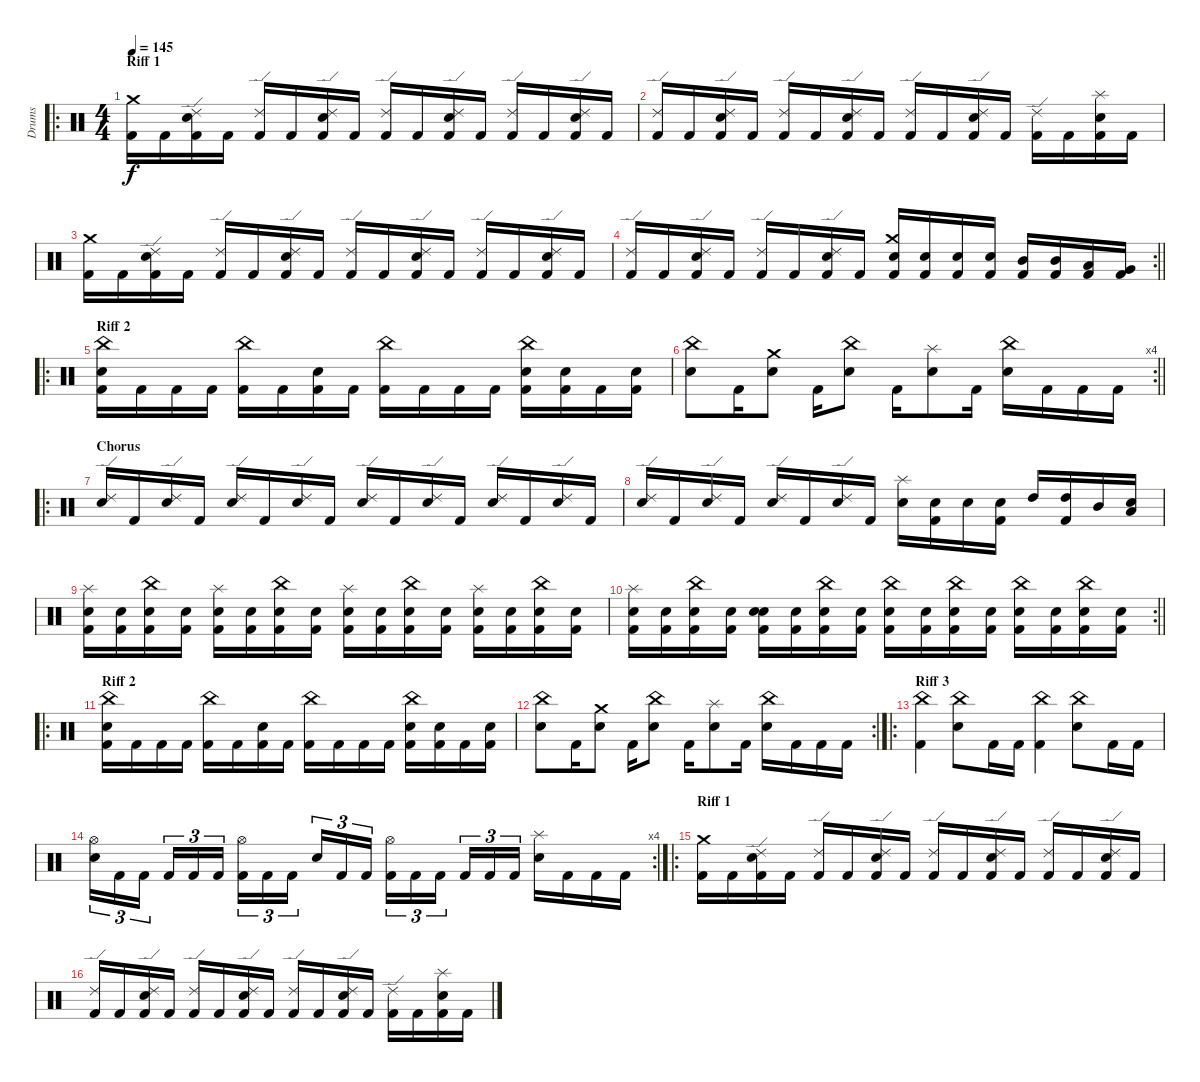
\track ("Drums" "Drums") {instrument percussion}
\staff {score}
\articulation defaults
\ro
\ts (4 4)
\section ("" "Riff 1")
\tempo 145
\clef neutral
\ks c
("Kick (hit) 2" "Crash medium (hit)").16{dy f} "Kick (hit) 2".16 ("Kick (hit) 2" "Snare (hit) 2" "Ride (edge) 2").16 "Kick (hit) 2".16 ("Kick (hit) 2" "Ride (edge) 2").16 "Kick (hit) 2".16 ("Kick (hit) 2" "Snare (hit) 2" "Ride (edge) 2").16 "Kick (hit) 2".16 ("Kick (hit) 2" "Ride (edge) 2").16 "Kick (hit) 2".16 ("Kick (hit) 2" "Snare (hit) 2" "Ride (edge) 2").16 "Kick (hit) 2".16 ("Kick (hit) 2" "Ride (edge) 2").16 "Kick (hit) 2".16 ("Kick (hit) 2" "Snare (hit) 2" "Ride (edge) 2").16 "Kick (hit) 2".16 |
("Kick (hit) 2" "Ride (edge) 2").16 "Kick (hit) 2".16 ("Kick (hit) 2" "Snare (hit) 2" "Ride (edge) 2").16 "Kick (hit) 2".16 ("Kick (hit) 2" "Ride (edge) 2").16 "Kick (hit) 2".16 ("Kick (hit) 2" "Snare (hit) 2" "Ride (edge) 2").16 "Kick (hit) 2".16 ("Kick (hit) 2" "Ride (edge) 2").16 "Kick (hit) 2".16 ("Kick (hit) 2" "Snare (hit) 2" "Ride (edge) 2").16 "Kick (hit) 2".16 ("Kick (hit) 2" "Ride (edge) 2").16 "Kick (hit) 2".16 ("Kick (hit) 2" "Snare (hit) 2" "Splash (hit)").16 "Kick (hit) 2".16 |
("Kick (hit) 2" "Crash medium (hit)").16 "Kick (hit) 2".16 ("Kick (hit) 2" "Snare (hit) 2" "Ride (edge) 2").16 "Kick (hit) 2".16 ("Kick (hit) 2" "Ride (edge) 2").16 "Kick (hit) 2".16 ("Kick (hit) 2" "Snare (hit) 2" "Ride (edge) 2").16 "Kick (hit) 2".16 ("Kick (hit) 2" "Ride (edge) 2").16 "Kick (hit) 2".16 ("Kick (hit) 2" "Snare (hit) 2" "Ride (edge) 2").16 "Kick (hit) 2".16 ("Kick (hit) 2" "Ride (edge) 2").16 "Kick (hit) 2".16 ("Kick (hit) 2" "Snare (hit) 2" "Ride (edge) 2").16 "Kick (hit) 2".16 |
\rc 2
\barLineRight lightlight
("Kick (hit) 2" "Ride (edge) 2").16 "Kick (hit) 2".16 ("Kick (hit) 2" "Snare (hit) 2" "Ride (edge) 2").16 "Kick (hit) 2".16 ("Kick (hit) 2" "Ride (edge) 2").16 "Kick (hit) 2".16 ("Kick (hit) 2" "Snare (hit) 2" "Ride (edge) 2").16 "Kick (hit) 2".16 ("Kick (hit) 2" "Snare (hit) 2" "Crash medium (hit)").16 ("Kick (hit) 2" "Snare (hit) 2").16 ("Kick (hit) 2" "Snare (hit) 2").16 ("Kick (hit) 2" "Snare (hit) 2").16 ("Kick (hit) 2" "Mid Tom (hit)").16 ("Kick (hit) 2" "Mid Tom (hit)").16 ("Kick (hit) 2" "Low Tom (hit)").16 ("Kick (hit) 2" "Very Low Tom (hit)").16 |
\ro
\section ("" "Riff 2")
("Kick (hit) 2" "Snare (hit) 2" "China (hit)").16 "Kick (hit) 2".16 "Kick (hit) 2".16 "Kick (hit) 2".16 ("Kick (hit) 2" "China (hit)").16 "Kick (hit) 2".16 ("Kick (hit) 2" "Snare (hit) 2").16 "Kick (hit) 2".16 ("Kick (hit) 2" "China (hit)").16 "Kick (hit) 2".16 "Kick (hit) 2".16 "Kick (hit) 2".16 ("Kick (hit) 2" "Snare (hit) 2" "China (hit)").16 ("Kick (hit) 2" "Snare (hit) 2").16 "Kick (hit) 2".16 ("Kick (hit) 2" "Snare (hit) 2").16 |
\rc 4
\barLineRight lightlight
("Snare (hit) 2" "China (hit)").8 "Kick (hit) 2".16 ("Snare (hit) 2" "Crash medium (hit)").8 "Kick (hit) 2".16 ("Snare (hit) 2" "China (hit)").8 "Kick (hit) 2".16 ("Splash (hit)" "Snare (hit) 2").8 "Kick (hit) 2".16 ("China (hit)" "Snare (hit) 2").16 "Kick (hit) 2".16 "Kick (hit) 2".16 "Kick (hit) 2".16 |
\ro
\section ("" "Chorus")
("Snare (hit) 2" "Ride (edge) 2").16 "Kick (hit) 2".16 ("Snare (hit) 2" "Ride (edge) 2").16 "Kick (hit) 2".16 ("Snare (hit) 2" "Ride (edge) 2").16 "Kick (hit) 2".16 ("Snare (hit) 2" "Ride (edge) 2").16 "Kick (hit) 2".16 ("Snare (hit) 2" "Ride (edge) 2").16 "Kick (hit) 2".16 ("Snare (hit) 2" "Ride (edge) 2").16 "Kick (hit) 2".16 ("Snare (hit) 2" "Ride (edge) 2").16 "Kick (hit) 2".16 ("Snare (hit) 2" "Ride (edge) 2").16 "Kick (hit) 2".16 |
("Snare (hit) 2" "Ride (edge) 2").16 "Kick (hit) 2".16 ("Snare (hit) 2" "Ride (edge) 2").16 "Kick (hit) 2".16 ("Snare (hit) 2" "Ride (edge) 2").16 "Kick (hit) 2".16 ("Snare (hit) 2" "Ride (edge) 2").16 "Kick (hit) 2".16 ("Snare (hit) 2" "Splash (hit)").16 ("Kick (hit) 2" "Snare (hit) 2").16 "Snare (hit) 2".16 ("Kick (hit) 2" "Snare (hit) 2").16 "High Tom (hit)".16 ("Kick (hit) 2" "High Tom (hit)").16 "Mid Tom (hit)".16 ("Snare (hit)" "Low Tom (hit)").16 |
("Kick (hit) 2" "Snare (hit) 2" "Splash (hit)").16 ("Kick (hit) 2" "Snare (hit) 2").16 ("Kick (hit) 2" "Snare (hit) 2" "China (hit)").16 ("Kick (hit) 2" "Snare (hit) 2").16 ("Kick (hit) 2" "Snare (hit) 2" "Splash (hit)").16 ("Kick (hit) 2" "Snare (hit) 2").16 ("Kick (hit) 2" "Snare (hit) 2" "China (hit)").16 ("Kick (hit) 2" "Snare (hit) 2").16 ("Kick (hit) 2" "Snare (hit) 2" "Splash (hit)").16 ("Kick (hit) 2" "Snare (hit) 2").16 ("Kick (hit) 2" "Snare (hit) 2" "China (hit)").16 ("Kick (hit) 2" "Snare (hit) 2").16 ("Kick (hit) 2" "Snare (hit) 2" "Splash (hit)").16 ("Kick (hit) 2" "Snare (hit) 2").16 ("Kick (hit) 2" "Snare (hit) 2" "China (hit)").16 ("Kick (hit) 2" "Snare (hit) 2").16 |
\rc 2
\barLineRight lightlight
("Kick (hit) 2" "Snare (hit) 2" "Splash (hit)").16 ("Kick (hit) 2" "Snare (hit) 2").16 ("Kick (hit) 2" "Snare (hit) 2" "China (hit)").16 ("Kick (hit) 2" "Snare (hit) 2").16 ("Kick (hit) 2" "Snare (hit) 2" "Snare (hit)").16 ("Kick (hit) 2" "Snare (hit) 2").16 ("Kick (hit) 2" "Snare (hit) 2" "China (hit)").16 ("Kick (hit) 2" "Snare (hit) 2").16 ("Kick (hit) 2" "Snare (hit) 2" "China (hit)").16 ("Kick (hit) 2" "Snare (hit) 2").16 ("Kick (hit) 2" "Snare (hit) 2" "China (hit)").16 ("Kick (hit) 2" "Snare (hit) 2").16 ("Kick (hit) 2" "Snare (hit) 2" "China (hit)").16 ("Kick (hit) 2" "Snare (hit) 2").16 ("Kick (hit) 2" "Snare (hit) 2" "China (hit)").16 ("Kick (hit) 2" "Snare (hit) 2").16 |
\ro
\section ("" "Riff 2")
("Kick (hit) 2" "Snare (hit) 2" "China (hit)").16 "Kick (hit) 2".16 "Kick (hit) 2".16 "Kick (hit) 2".16 ("Kick (hit) 2" "China (hit)").16 "Kick (hit) 2".16 ("Kick (hit) 2" "Snare (hit) 2").16 "Kick (hit) 2".16 ("Kick (hit) 2" "China (hit)").16 "Kick (hit) 2".16 "Kick (hit) 2".16 "Kick (hit) 2".16 ("Kick (hit) 2" "Snare (hit) 2" "China (hit)").16 ("Kick (hit) 2" "Snare (hit) 2").16 "Kick (hit) 2".16 ("Kick (hit) 2" "Snare (hit) 2").16 |
\rc 2
("Snare (hit) 2" "China (hit)").8 "Kick (hit) 2".16 ("Snare (hit) 2" "Crash medium (hit)").8 "Kick (hit) 2".16 ("Snare (hit) 2" "China (hit)").8 "Kick (hit) 2".16 ("Splash (hit)" "Snare (hit) 2").8 "Kick (hit) 2".16 ("China (hit)" "Snare (hit) 2").16 "Kick (hit) 2".16 "Kick (hit) 2".16 "Kick (hit) 2".16 |
\ro
\section ("" "Riff 3")
("Kick (hit) 2" "China (hit)").4 ("Snare (hit) 2" "China (hit)").8 "Kick (hit) 2".16 "Kick (hit) 2".16 ("Kick (hit) 2" "China (hit)").4 ("Snare (hit) 2" "China (hit)").8 "Kick (hit) 2".16 "Kick (hit) 2".16 |
\rc 4
("Snare (hit) 2" "Hi-Hat (open)").16{tu (3 2)} "Kick (hit) 2".16{tu (3 2)} "Kick (hit) 2".16{tu (3 2)} "Kick (hit) 2".16{tu (3 2)} "Kick (hit) 2".16{tu (3 2)} "Kick (hit) 2".16{tu (3 2)} ("Kick (hit) 2" "Hi-Hat (open)").16{tu (3 2)} "Kick (hit) 2".16{tu (3 2)} "Kick (hit) 2".16{tu (3 2)} "Snare (hit) 2".16{tu (3 2)} "Kick (hit) 2".16{tu (3 2)} "Kick (hit) 2".16{tu (3 2)} ("Kick (hit) 2" "Hi-Hat (open)").16{tu (3 2)} "Kick (hit) 2".16{tu (3 2)} "Kick (hit) 2".16{tu (3 2)} "Kick (hit) 2".16{tu (3 2)} "Kick (hit) 2".16{tu (3 2)} "Kick (hit) 2".16{tu (3 2)} ("Splash (hit)" "Snare (hit) 2").16 "Kick (hit) 2".16 "Kick (hit) 2".16 "Kick (hit) 2".16 |
\ro
\section ("" "Riff 1")
("Kick (hit) 2" "Crash medium (hit)").16 "Kick (hit) 2".16 ("Kick (hit) 2" "Snare (hit) 2" "Ride (edge) 2").16 "Kick (hit) 2".16 ("Kick (hit) 2" "Ride (edge) 2").16 "Kick (hit) 2".16 ("Kick (hit) 2" "Snare (hit) 2" "Ride (edge) 2").16 "Kick (hit) 2".16 ("Kick (hit) 2" "Ride (edge) 2").16 "Kick (hit) 2".16 ("Kick (hit) 2" "Snare (hit) 2" "Ride (edge) 2").16 "Kick (hit) 2".16 ("Kick (hit) 2" "Ride (edge) 2").16 "Kick (hit) 2".16 ("Kick (hit) 2" "Snare (hit) 2" "Ride (edge) 2").16 "Kick (hit) 2".16 |
("Kick (hit) 2" "Ride (edge) 2").16 "Kick (hit) 2".16 ("Kick (hit) 2" "Snare (hit) 2" "Ride (edge) 2").16 "Kick (hit) 2".16 ("Kick (hit) 2" "Ride (edge) 2").16 "Kick (hit) 2".16 ("Kick (hit) 2" "Snare (hit) 2" "Ride (edge) 2").16 "Kick (hit) 2".16 ("Kick (hit) 2" "Ride (edge) 2").16 "Kick (hit) 2".16 ("Kick (hit) 2" "Snare (hit) 2" "Ride (edge) 2").16 "Kick (hit) 2".16 ("Kick (hit) 2" "Ride (edge) 2").16 "Kick (hit) 2".16 ("Kick (hit) 2" "Snare (hit) 2" "Splash (hit)").16 "Kick (hit) 2".16
